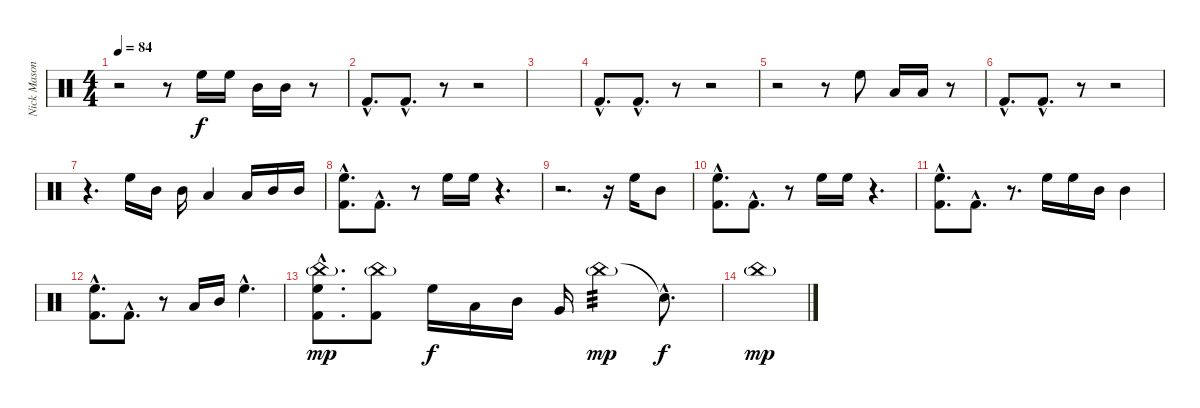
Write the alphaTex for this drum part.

\track ("Nick Mason" "Nick Mason") {instrument percussion}
\staff {score}
\articulation defaults
\ts (4 4)
\tempo 84
\clef neutral
\ks c
r.2{dy f} r.8 "High Floor Tom (hit)".16 "High Floor Tom (hit)".16 "Mid Tom (hit)".16 "Mid Tom (hit)".16 r.8 |
"Kick (hit) 2"{hac}.8{d} "Kick (hit) 2"{hac}.8{d} r.8 r.2 |
|
"Kick (hit) 2"{hac}.8{d} "Kick (hit) 2"{hac}.8{d} r.8 r.2 |
r.2 r.8 "High Floor Tom (hit)".8 "Low Tom (hit)".16 "Low Tom (hit)".16 r.8 |
"Kick (hit) 2"{hac}.8{d} "Kick (hit) 2"{hac}.8{d} r.8 r.2 |
r.4{d} "High Floor Tom (hit)".16 "Mid Tom (hit)".16 "Mid Tom (hit)".16 "Low Tom (hit)".4 "Low Tom (hit)".16 "Mid Tom (hit)".16 "Mid Tom (hit)".16 |
("High Floor Tom (hit)"{hac} "Kick (hit) 2"{hac}).8{d} "Kick (hit) 2"{hac}.8{d} r.8 "High Floor Tom (hit)".16 "High Floor Tom (hit)".16 r.4{d} |
r.2{d} r.16 "High Floor Tom (hit)".16 "Mid Tom (hit)".8 |
("High Floor Tom (hit)"{hac} "Kick (hit) 2"{hac}).8{d} "Kick (hit) 2"{hac}.8{d} r.8 "High Floor Tom (hit)".16 "High Floor Tom (hit)".16 r.4{d} |
("High Floor Tom (hit)"{hac} "Kick (hit) 2"{hac}).8{d} "Kick (hit) 2"{hac}.8{d} r.8{d} "High Floor Tom (hit)".16 "High Floor Tom (hit)".16 "Mid Tom (hit)".16 "Mid Tom (hit)".4 |
("High Floor Tom (hit)"{hac} "Kick (hit) 2"{hac}).8{d} "Kick (hit) 2"{hac}.8{d} r.8 "Low Tom (hit)".16 "Mid Tom (hit)".16 "High Floor Tom (hit)"{hac}.4{d} |
("China (hit)"{g hac} "High Floor Tom (hit)"{hac} "Kick (hit) 2"{hac}).8{d dy mp} ("China (hit)"{g} "Kick (hit) 2").8 "High Floor Tom (hit)".16{dy f} "Low Tom (hit)".16 "Mid Tom (hit)".16 "Very Low Tom (hit)".16 "China (hit)"{g}.4{tp 3 dy mp} "Snare (hit)"{hac t}.8{d dy f} |
"China (hit)"{g}.1{dy mp}
